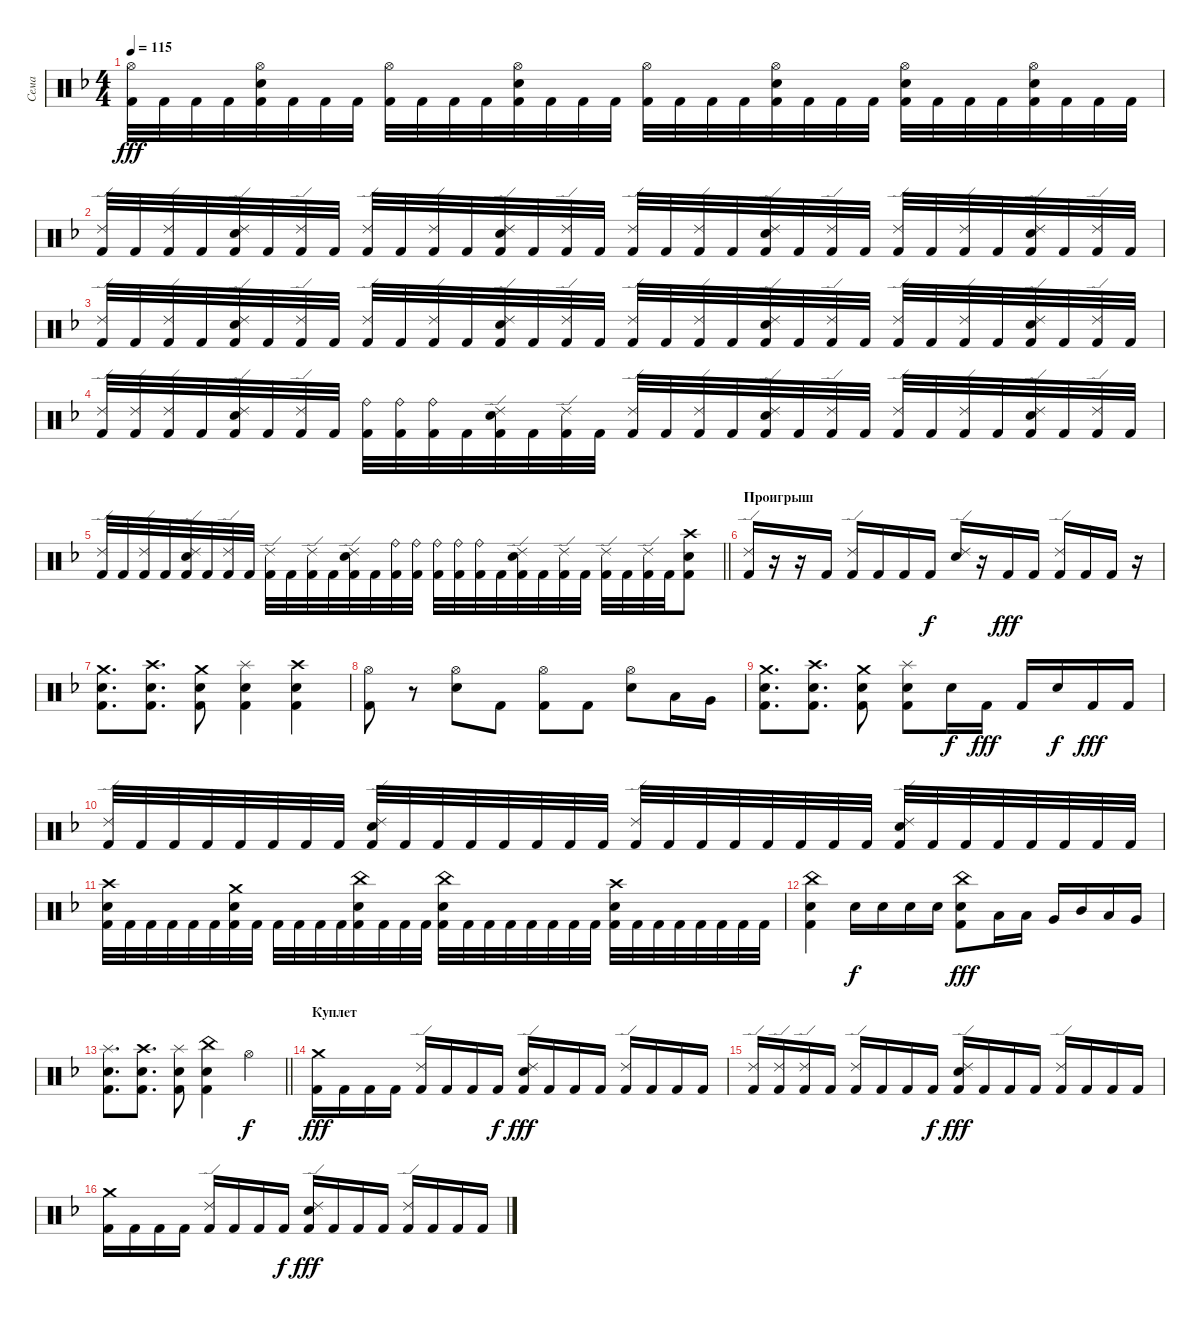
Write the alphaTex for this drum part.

\track ("Сема" "Сема") {instrument percussion}
\staff {score}
\articulation defaults
\ts (4 4)
\tempo 115
\clef neutral
\ks dminor
("Hi-Hat (open)" "Kick (hit) 2").32{dy fff} "Kick (hit) 2".32 "Kick (hit) 2".32 "Kick (hit) 2".32 ("Hi-Hat (open)" "Electric Snare (hit)" "Kick (hit) 2").32 "Kick (hit) 2".32 "Kick (hit) 2".32 "Kick (hit) 2".32 ("Hi-Hat (open)" "Kick (hit) 2").32 "Kick (hit) 2".32 "Kick (hit) 2".32 "Kick (hit) 2".32 ("Hi-Hat (open)" "Electric Snare (hit)" "Kick (hit) 2").32 "Kick (hit) 2".32 "Kick (hit) 2".32 "Kick (hit) 2".32 ("Hi-Hat (open)" "Kick (hit) 2").32 "Kick (hit) 2".32 "Kick (hit) 2".32 "Kick (hit) 2".32 ("Hi-Hat (open)" "Electric Snare (hit)" "Kick (hit) 2").32 "Kick (hit) 2".32 "Kick (hit) 2".32 "Kick (hit) 2".32 ("Hi-Hat (open)" "Electric Snare (hit)" "Kick (hit) 2").32 "Kick (hit) 2".32 "Kick (hit) 2".32 "Kick (hit) 2".32 ("Hi-Hat (open)" "Electric Snare (hit)" "Kick (hit) 2").32 "Kick (hit) 2".32 "Kick (hit) 2".32 "Kick (hit) 2".32 |
("Ride (edge) 2" "Kick (hit) 2").32 "Kick (hit) 2".32 ("Ride (edge) 2" "Kick (hit) 2").32 "Kick (hit) 2".32 ("Ride (edge) 2" "Electric Snare (hit)" "Kick (hit) 2").32 "Kick (hit) 2".32 ("Ride (edge) 2" "Kick (hit) 2").32 "Kick (hit) 2".32 ("Ride (edge) 2" "Kick (hit) 2").32 "Kick (hit) 2".32 ("Ride (edge) 2" "Kick (hit) 2").32 "Kick (hit) 2".32 ("Ride (edge) 2" "Electric Snare (hit)" "Kick (hit) 2").32 "Kick (hit) 2".32 ("Ride (edge) 2" "Kick (hit) 2").32 "Kick (hit) 2".32 ("Ride (edge) 2" "Kick (hit) 2").32 "Kick (hit) 2".32 ("Ride (edge) 2" "Kick (hit) 2").32 "Kick (hit) 2".32 ("Ride (edge) 2" "Electric Snare (hit)" "Kick (hit) 2").32 "Kick (hit) 2".32 ("Ride (edge) 2" "Kick (hit) 2").32 "Kick (hit) 2".32 ("Ride (edge) 2" "Kick (hit) 2").32 "Kick (hit) 2".32 ("Ride (edge) 2" "Kick (hit) 2").32 "Kick (hit) 2".32 ("Ride (edge) 2" "Electric Snare (hit)" "Kick (hit) 2").32 "Kick (hit) 2".32 ("Ride (edge) 2" "Kick (hit) 2").32 "Kick (hit) 2".32 |
("Ride (edge) 2" "Kick (hit) 2").32 "Kick (hit) 2".32 ("Ride (edge) 2" "Kick (hit) 2").32 "Kick (hit) 2".32 ("Ride (edge) 2" "Electric Snare (hit)" "Kick (hit) 2").32 "Kick (hit) 2".32 ("Ride (edge) 2" "Kick (hit) 2").32 "Kick (hit) 2".32 ("Ride (edge) 2" "Kick (hit) 2").32 "Kick (hit) 2".32 ("Ride (edge) 2" "Kick (hit) 2").32 "Kick (hit) 2".32 ("Ride (edge) 2" "Electric Snare (hit)" "Kick (hit) 2").32 "Kick (hit) 2".32 ("Ride (edge) 2" "Kick (hit) 2").32 "Kick (hit) 2".32 ("Ride (edge) 2" "Kick (hit) 2").32 "Kick (hit) 2".32 ("Ride (edge) 2" "Kick (hit) 2").32 "Kick (hit) 2".32 ("Ride (edge) 2" "Electric Snare (hit)" "Kick (hit) 2").32 "Kick (hit) 2".32 ("Ride (edge) 2" "Kick (hit) 2").32 "Kick (hit) 2".32 ("Ride (edge) 2" "Kick (hit) 2").32 "Kick (hit) 2".32 ("Ride (edge) 2" "Kick (hit) 2").32 "Kick (hit) 2".32 ("Ride (edge) 2" "Electric Snare (hit)" "Kick (hit) 2").32 "Kick (hit) 2".32 ("Ride (edge) 2" "Kick (hit) 2").32 "Kick (hit) 2".32 |
("Ride (edge) 2" "Kick (hit) 2").32 ("Ride (edge) 2" "Kick (hit) 2").32 ("Ride (edge) 2" "Kick (hit) 2").32 "Kick (hit) 2".32 ("Ride (edge) 2" "Electric Snare (hit)" "Kick (hit) 2").32 "Kick (hit) 2".32 ("Ride (edge) 2" "Kick (hit) 2").32 "Kick (hit) 2".32 ("Ride (bell)" "Kick (hit) 2").32 ("Ride (bell)" "Kick (hit) 2").32 ("Ride (bell)" "Kick (hit) 2").32 "Kick (hit) 2".32 ("Ride (edge) 2" "Electric Snare (hit)" "Kick (hit) 2").32 "Kick (hit) 2".32 ("Ride (edge) 2" "Kick (hit) 2").32 "Kick (hit) 2".32 ("Ride (edge) 2" "Kick (hit) 2").32 "Kick (hit) 2".32 ("Ride (edge) 2" "Kick (hit) 2").32 "Kick (hit) 2".32 ("Ride (edge) 2" "Electric Snare (hit)" "Kick (hit) 2").32 "Kick (hit) 2".32 ("Ride (edge) 2" "Kick (hit) 2").32 "Kick (hit) 2".32 ("Ride (edge) 2" "Kick (hit) 2").32 "Kick (hit) 2".32 ("Ride (edge) 2" "Kick (hit) 2").32 "Kick (hit) 2".32 ("Ride (edge) 2" "Electric Snare (hit)" "Kick (hit) 2").32 "Kick (hit) 2".32 ("Ride (edge) 2" "Kick (hit) 2").32 "Kick (hit) 2".32 |
\barLineRight lightlight
("Ride (edge) 2" "Kick (hit) 2").32 "Kick (hit) 2".32 ("Ride (edge) 2" "Kick (hit) 2").32 "Kick (hit) 2".32 ("Ride (edge) 2" "Electric Snare (hit)" "Kick (hit) 2").32 "Kick (hit) 2".32 ("Ride (edge) 2" "Kick (hit) 2").32 "Kick (hit) 2".32 ("Ride (edge) 2" "Kick (hit) 2").32 "Kick (hit) 2".32 ("Ride (edge) 2" "Kick (hit) 2").32 "Kick (hit) 2".32 ("Ride (edge) 2" "Electric Snare (hit)" "Kick (hit) 2").32 "Kick (hit) 2".32 ("Ride (bell)" "Kick (hit) 2").32 ("Ride (bell)" "Kick (hit) 2").32 ("Ride (bell)" "Kick (hit) 2").32 ("Ride (bell)" "Kick (hit) 2").32 ("Ride (bell)" "Kick (hit) 2").32 "Kick (hit) 2".32 ("Ride (edge) 2" "Electric Snare (hit)" "Kick (hit) 2").32 "Kick (hit) 2".32 ("Ride (edge) 2" "Kick (hit) 2").32 "Kick (hit) 2".32 ("Ride (edge) 2" "Kick (hit) 2").32 "Kick (hit) 2".32 ("Ride (edge) 2" "Kick (hit) 2").32 "Kick (hit) 2".32 ("Crash high (hit)" "Electric Snare (hit)" "Kick (hit) 2").8 |
\section ("" "Проигрыш")
("Ride (edge) 2" "Kick (hit) 2").16 r.16 r.16 "Kick (hit) 2".16 ("Ride (edge) 2" "Kick (hit) 2").16 "Kick (hit) 2".16 "Kick (hit) 2".16 "Kick (hit) 2".16{dy f} ("Ride (edge) 2" "Electric Snare (hit)").16 r.16 "Kick (hit) 2".16{dy fff} "Kick (hit) 2".16 ("Ride (edge) 2" "Kick (hit) 2").16 "Kick (hit) 2".16 "Kick (hit) 2".16 r.16 |
("Crash medium (hit)" "Electric Snare (hit)" "Kick (hit) 2").8{d} ("Crash high (hit)" "Electric Snare (hit)" "Kick (hit) 2").8{d} ("Crash medium (hit)" "Electric Snare (hit)" "Kick (hit) 2").8 ("Splash (hit)" "Electric Snare (hit)" "Kick (hit) 2").4 ("Crash high (hit)" "Electric Snare (hit)" "Kick (hit) 2").4 |
("Hi-Hat (open)" "Kick (hit) 2").8 r.8 ("Hi-Hat (open)" "Electric Snare (hit)").8 "Kick (hit) 2".8 ("Hi-Hat (open)" "Kick (hit) 2").8 "Kick (hit) 2".8 ("Hi-Hat (open)" "Electric Snare (hit)").8 "Low Tom (hit)".16 "Very Low Tom (hit)".16 |
("Crash medium (hit)" "Electric Snare (hit)" "Kick (hit) 2").8{d} ("Crash high (hit)" "Electric Snare (hit)" "Kick (hit) 2").8{d} ("Crash medium (hit)" "Electric Snare (hit)" "Kick (hit) 2").8 ("Splash (hit)" "Electric Snare (hit)" "Kick (hit) 2").8 "Electric Snare (hit)".16{dy f} "Kick (hit) 2".16{dy fff} "Kick (hit) 2".16 "Electric Snare (hit)".16{dy f} "Kick (hit) 2".16{dy fff} "Kick (hit) 2".16 |
("Ride (edge) 2" "Kick (hit) 2").32 "Kick (hit) 2".32 "Kick (hit) 2".32 "Kick (hit) 2".32 "Kick (hit) 2".32 "Kick (hit) 2".32 "Kick (hit) 2".32 "Kick (hit) 2".32 ("Ride (edge) 2" "Electric Snare (hit)" "Kick (hit) 2").32 "Kick (hit) 2".32 "Kick (hit) 2".32 "Kick (hit) 2".32 "Kick (hit) 2".32 "Kick (hit) 2".32 "Kick (hit) 2".32 "Kick (hit) 2".32 ("Ride (edge) 2" "Kick (hit) 2").32 "Kick (hit) 2".32 "Kick (hit) 2".32 "Kick (hit) 2".32 "Kick (hit) 2".32 "Kick (hit) 2".32 "Kick (hit) 2".32 "Kick (hit) 2".32 ("Ride (edge) 2" "Electric Snare (hit)" "Kick (hit) 2").32 "Kick (hit) 2".32 "Kick (hit) 2".32 "Kick (hit) 2".32 "Kick (hit) 2".32 "Kick (hit) 2".32 "Kick (hit) 2".32 "Kick (hit) 2".32 |
("Crash high (hit)" "Electric Snare (hit)" "Kick (hit) 2").32 "Kick (hit) 2".32 "Kick (hit) 2".32 "Kick (hit) 2".32 "Kick (hit) 2".32 "Kick (hit) 2".32 ("Crash medium (hit)" "Electric Snare (hit)" "Kick (hit) 2").32 "Kick (hit) 2".32 "Kick (hit) 2".32 "Kick (hit) 2".32 "Kick (hit) 2".32 "Kick (hit) 2".32 ("China (hit)" "Electric Snare (hit)" "Kick (hit) 2").32 "Kick (hit) 2".32 "Kick (hit) 2".32 "Kick (hit) 2".32 ("China (hit)" "Electric Snare (hit)" "Kick (hit) 2").32 "Kick (hit) 2".32 "Kick (hit) 2".32 "Kick (hit) 2".32 "Kick (hit) 2".32 "Kick (hit) 2".32 "Kick (hit) 2".32 "Kick (hit) 2".32 ("Crash high (hit)" "Electric Snare (hit)" "Kick (hit) 2").32 "Kick (hit) 2".32 "Kick (hit) 2".32 "Kick (hit) 2".32 "Kick (hit) 2".32 "Kick (hit) 2".32 "Kick (hit) 2".32 "Kick (hit) 2".32 |
("China (hit)" "Electric Snare (hit)" "Kick (hit) 2").4 "Electric Snare (hit)".16{dy f} "Electric Snare (hit)".16 "Electric Snare (hit)".16 "Electric Snare (hit)".16 ("China (hit)" "Electric Snare (hit)" "Kick (hit) 2").8{dy fff} "Low Tom (hit)".16 "Low Floor Tom (hit)".16 "Very Low Tom (hit)".16 "Mid Tom (hit)".16 "Low Tom (hit)".16 "Very Low Tom (hit)".16 |
\barLineRight lightlight
("Splash (hit)" "Electric Snare (hit)" "Kick (hit) 2").8{d} ("Crash high (hit)" "Electric Snare (hit)" "Kick (hit) 2").8{d} ("Splash (hit)" "Electric Snare (hit)" "Kick (hit) 2").8 ("China (hit)" "Electric Snare (hit)" "Kick (hit) 2").4 "Hi-Hat (open)".4{dy f} |
\section ("" "Куплет ")
("Crash medium (hit)" "Kick (hit) 2").16{dy fff} "Kick (hit) 2".16 "Kick (hit) 2".16 "Kick (hit) 2".16 ("Ride (edge) 2" "Kick (hit) 2").16 "Kick (hit) 2".16 "Kick (hit) 2".16 "Kick (hit) 2".16{dy f} ("Ride (edge) 2" "Electric Snare (hit)" "Kick (hit) 2").16{dy fff} "Kick (hit) 2".16 "Kick (hit) 2".16 "Kick (hit) 2".16 ("Ride (edge) 2" "Kick (hit) 2").16 "Kick (hit) 2".16 "Kick (hit) 2".16 "Kick (hit) 2".16 |
("Ride (edge) 2" "Kick (hit) 2").16 ("Ride (edge) 2" "Kick (hit) 2").16 ("Ride (edge) 2" "Kick (hit) 2").16 "Kick (hit) 2".16 ("Ride (edge) 2" "Kick (hit) 2").16 "Kick (hit) 2".16 "Kick (hit) 2".16 "Kick (hit) 2".16{dy f} ("Ride (edge) 2" "Electric Snare (hit)" "Kick (hit) 2").16{dy fff} "Kick (hit) 2".16 "Kick (hit) 2".16 "Kick (hit) 2".16 ("Ride (edge) 2" "Kick (hit) 2").16 "Kick (hit) 2".16 "Kick (hit) 2".16 "Kick (hit) 2".16 |
("Crash medium (hit)" "Kick (hit) 2").16 "Kick (hit) 2".16 "Kick (hit) 2".16 "Kick (hit) 2".16 ("Ride (edge) 2" "Kick (hit) 2").16 "Kick (hit) 2".16 "Kick (hit) 2".16 "Kick (hit) 2".16{dy f} ("Ride (edge) 2" "Electric Snare (hit)" "Kick (hit) 2").16{dy fff} "Kick (hit) 2".16 "Kick (hit) 2".16 "Kick (hit) 2".16 ("Ride (edge) 2" "Kick (hit) 2").16 "Kick (hit) 2".16 "Kick (hit) 2".16 "Kick (hit) 2".16
